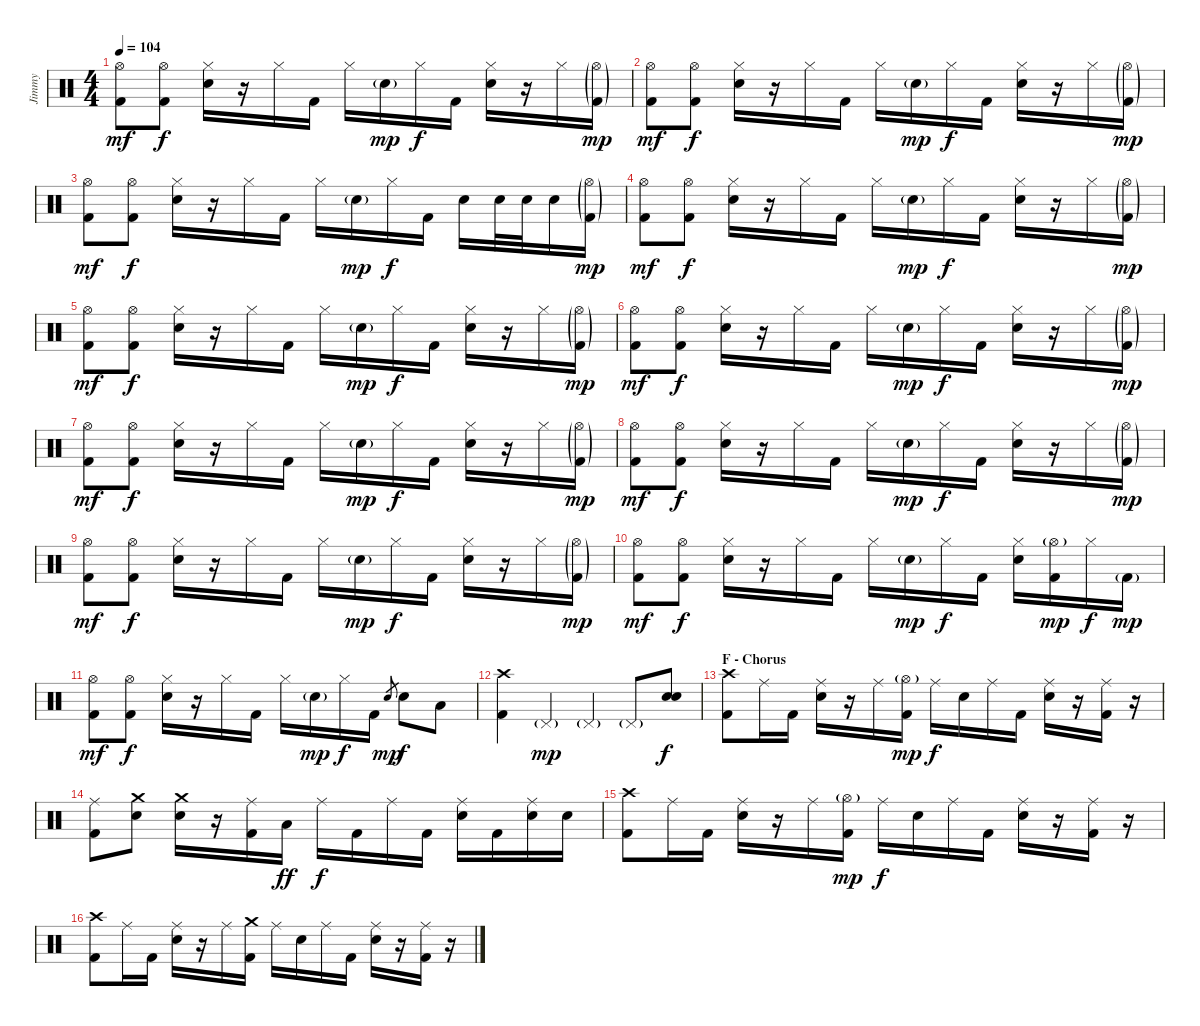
\track ("Jimmy" "Jimmy") {instrument percussion}
\staff {score}
\articulation defaults
\ts (4 4)
\tempo 104
\clef neutral
\ks c
("Hi-Hat (open)" "Kick (hit) 2").8{dy mf} ("Hi-Hat (open)" "Kick (hit) 2").8{dy f} ("Hi-Hat (closed)" "Electric Snare (hit)").16 r.16 "Hi-Hat (closed)".16 "Kick (hit) 2".16 "Hi-Hat (closed)".16 "Electric Snare (hit)"{g}.16{dy mp} "Hi-Hat (closed)".16{dy f} "Kick (hit) 2".16 ("Hi-Hat (closed)" "Electric Snare (hit)").16 r.16 "Hi-Hat (closed)".16 ("Hi-Hat (open)"{g} "Kick (hit) 2"{g}).16{dy mp} |
("Hi-Hat (open)" "Kick (hit) 2").8{dy mf} ("Hi-Hat (open)" "Kick (hit) 2").8{dy f} ("Hi-Hat (closed)" "Electric Snare (hit)").16 r.16 "Hi-Hat (closed)".16 "Kick (hit) 2".16 "Hi-Hat (closed)".16 "Electric Snare (hit)"{g}.16{dy mp} "Hi-Hat (closed)".16{dy f} "Kick (hit) 2".16 ("Hi-Hat (closed)" "Electric Snare (hit)").16 r.16 "Hi-Hat (closed)".16 ("Hi-Hat (open)"{g} "Kick (hit) 2"{g}).16{dy mp} |
("Hi-Hat (open)" "Kick (hit) 2").8{dy mf} ("Hi-Hat (open)" "Kick (hit) 2").8{dy f} ("Hi-Hat (closed)" "Electric Snare (hit)").16 r.16 "Hi-Hat (closed)".16 "Kick (hit) 2".16 "Hi-Hat (closed)".16 "Electric Snare (hit)"{g}.16{dy mp} "Hi-Hat (closed)".16{dy f} "Kick (hit) 2".16 "Electric Snare (hit)".16 "Electric Snare (hit)".32 "Electric Snare (hit)".32 "Electric Snare (hit)".16 ("Hi-Hat (open)"{g} "Kick (hit) 2"{g}).16{dy mp} |
("Hi-Hat (open)" "Kick (hit) 2").8{dy mf} ("Hi-Hat (open)" "Kick (hit) 2").8{dy f} ("Hi-Hat (closed)" "Electric Snare (hit)").16 r.16 "Hi-Hat (closed)".16 "Kick (hit) 2".16 "Hi-Hat (closed)".16 "Electric Snare (hit)"{g}.16{dy mp} "Hi-Hat (closed)".16{dy f} "Kick (hit) 2".16 ("Hi-Hat (closed)" "Electric Snare (hit)").16 r.16 "Hi-Hat (closed)".16 ("Hi-Hat (open)"{g} "Kick (hit) 2"{g}).16{dy mp} |
("Hi-Hat (open)" "Kick (hit) 2").8{dy mf} ("Hi-Hat (open)" "Kick (hit) 2").8{dy f} ("Hi-Hat (closed)" "Electric Snare (hit)").16 r.16 "Hi-Hat (closed)".16 "Kick (hit) 2".16 "Hi-Hat (closed)".16 "Electric Snare (hit)"{g}.16{dy mp} "Hi-Hat (closed)".16{dy f} "Kick (hit) 2".16 ("Hi-Hat (closed)" "Electric Snare (hit)").16 r.16 "Hi-Hat (closed)".16 ("Hi-Hat (open)"{g} "Kick (hit) 2"{g}).16{dy mp} |
("Hi-Hat (open)" "Kick (hit) 2").8{dy mf} ("Hi-Hat (open)" "Kick (hit) 2").8{dy f} ("Hi-Hat (closed)" "Electric Snare (hit)").16 r.16 "Hi-Hat (closed)".16 "Kick (hit) 2".16 "Hi-Hat (closed)".16 "Electric Snare (hit)"{g}.16{dy mp} "Hi-Hat (closed)".16{dy f} "Kick (hit) 2".16 ("Hi-Hat (closed)" "Electric Snare (hit)").16 r.16 "Hi-Hat (closed)".16 ("Hi-Hat (open)"{g} "Kick (hit) 2"{g}).16{dy mp} |
("Hi-Hat (open)" "Kick (hit) 2").8{dy mf} ("Hi-Hat (open)" "Kick (hit) 2").8{dy f} ("Hi-Hat (closed)" "Electric Snare (hit)").16 r.16 "Hi-Hat (closed)".16 "Kick (hit) 2".16 "Hi-Hat (closed)".16 "Electric Snare (hit)"{g}.16{dy mp} "Hi-Hat (closed)".16{dy f} "Kick (hit) 2".16 ("Hi-Hat (closed)" "Electric Snare (hit)").16 r.16 "Hi-Hat (closed)".16 ("Hi-Hat (open)"{g} "Kick (hit) 2"{g}).16{dy mp} |
("Hi-Hat (open)" "Kick (hit) 2").8{dy mf} ("Hi-Hat (open)" "Kick (hit) 2").8{dy f} ("Hi-Hat (closed)" "Electric Snare (hit)").16 r.16 "Hi-Hat (closed)".16 "Kick (hit) 2".16 "Hi-Hat (closed)".16 "Electric Snare (hit)"{g}.16{dy mp} "Hi-Hat (closed)".16{dy f} "Kick (hit) 2".16 ("Hi-Hat (closed)" "Electric Snare (hit)").16 r.16 "Hi-Hat (closed)".16 ("Hi-Hat (open)"{g} "Kick (hit) 2"{g}).16{dy mp} |
("Hi-Hat (open)" "Kick (hit) 2").8{dy mf} ("Hi-Hat (open)" "Kick (hit) 2").8{dy f} ("Hi-Hat (closed)" "Electric Snare (hit)").16 r.16 "Hi-Hat (closed)".16 "Kick (hit) 2".16 "Hi-Hat (closed)".16 "Electric Snare (hit)"{g}.16{dy mp} "Hi-Hat (closed)".16{dy f} "Kick (hit) 2".16 ("Hi-Hat (closed)" "Electric Snare (hit)").16 r.16 "Hi-Hat (closed)".16 ("Hi-Hat (open)"{g} "Kick (hit) 2"{g}).16{dy mp} |
("Hi-Hat (open)" "Kick (hit) 2").8{dy mf} ("Hi-Hat (open)" "Kick (hit) 2").8{dy f} ("Hi-Hat (closed)" "Electric Snare (hit)").16 r.16 "Hi-Hat (closed)".16 "Kick (hit) 2".16 "Hi-Hat (closed)".16 "Electric Snare (hit)"{g}.16{dy mp} "Hi-Hat (closed)".16{dy f} "Kick (hit) 2".16 ("Hi-Hat (closed)" "Electric Snare (hit)").16 ("Hi-Hat (open)"{g} "Kick (hit) 2").16{dy mp} "Hi-Hat (closed)".16{dy f} "Kick (hit) 2"{g}.16{dy mp} |
("Hi-Hat (open)" "Kick (hit) 2").8{dy mf} ("Hi-Hat (open)" "Kick (hit) 2").8{dy f} ("Hi-Hat (closed)" "Electric Snare (hit)").16 r.16 "Hi-Hat (closed)".16 "Kick (hit) 2".16 "Hi-Hat (closed)".16 "Electric Snare (hit)"{g}.16{dy mp} "Hi-Hat (closed)".16{dy f} "Kick (hit) 2".16 "Electric Snare (hit)".8{gr dy mp} "Electric Snare (hit)".8{dy f} "Low Tom (hit)".8 |
("Crash high (hit)" "Kick (hit) 2").4 "Pedal Hi-Hat (hit)"{g}.4{dy mp} "Pedal Hi-Hat (hit)"{g}.4 "Pedal Hi-Hat (hit)"{g}.8 ("Electric Snare (hit)" "Electric Snare (hit)").8{dy f} |
\section ("" "F - Chorus")
("Crash high (hit)" "Kick (hit) 2").8 "Ride (middle)".16 "Kick (hit) 2".16 ("Ride (middle)" "Electric Snare (hit)").16 r.16 "Ride (middle)".16 ("Hi-Hat (open)"{g} "Kick (hit) 2").16{dy mp} "Ride (middle)".16{dy f} "Electric Snare (hit)".16 "Ride (middle)".16 "Kick (hit) 2".16 ("Ride (middle)" "Electric Snare (hit)").16 r.16 ("Ride (middle)" "Kick (hit) 2").16 r.16 |
("Ride (middle)" "Kick (hit) 2").8 ("Crash medium (hit)" "Electric Snare (hit)").8 ("Crash medium (hit)" "Electric Snare (hit)").16 r.16 ("Ride (middle)" "Kick (hit) 2").16 "Low Tom (hit)".16{dy ff} "Ride (middle)".16{dy f} "Kick (hit) 2".16 "Ride (middle)".16 "Kick (hit) 2".16 ("Ride (middle)" "Electric Snare (hit)").16 "Kick (hit) 2".16 ("Ride (middle)" "Electric Snare (hit)").16 "Electric Snare (hit)".16 |
("Crash high (hit)" "Kick (hit) 2").8 "Ride (middle)".16 "Kick (hit) 2".16 ("Ride (middle)" "Electric Snare (hit)").16 r.16 "Ride (middle)".16 ("Hi-Hat (open)"{g} "Kick (hit) 2").16{dy mp} "Ride (middle)".16{dy f} "Electric Snare (hit)".16 "Ride (middle)".16 "Kick (hit) 2".16 ("Ride (middle)" "Electric Snare (hit)").16 r.16 ("Ride (middle)" "Kick (hit) 2").16 r.16 |
("Crash high (hit)" "Kick (hit) 2").8 "Ride (middle)".16 "Kick (hit) 2".16 ("Ride (middle)" "Electric Snare (hit)").16 r.16 "Ride (middle)".16 ("Crash medium (hit)" "Kick (hit) 2").16 "Ride (middle)".16 "Electric Snare (hit)".16 "Ride (middle)".16 "Kick (hit) 2".16 ("Ride (middle)" "Electric Snare (hit)").16 r.16 ("Ride (middle)" "Kick (hit) 2").16 r.16
